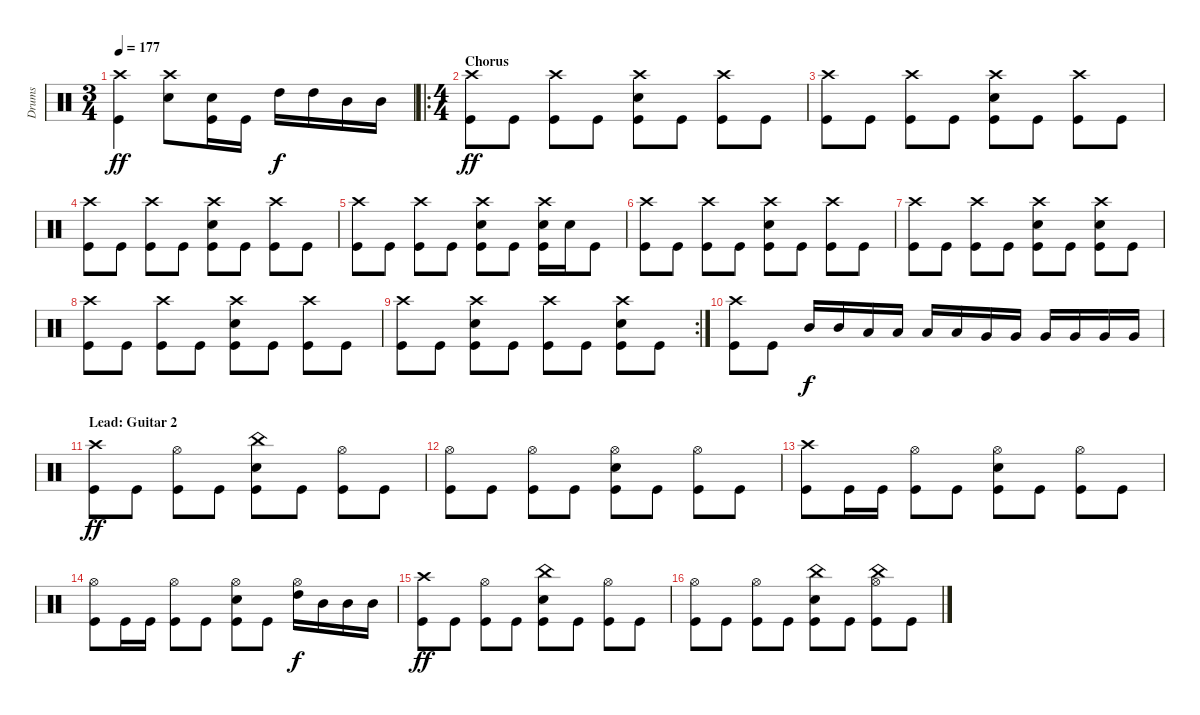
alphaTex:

\track ("Drums" "Drums") {instrument percussion}
\staff {score}
\articulation defaults
\ts (3 4)
\tempo 177
\clef neutral
\ks c
("Crash high (hit)" "Kick (hit)").4{dy ff} ("Crash high (hit)" "Electric Snare (hit)").8 ("Electric Snare (hit)" "Kick (hit)").16 "Kick (hit)".16 "High Tom (hit)".16{dy f} "High Tom (hit)".16 "Mid Tom (hit)".16 "Mid Tom (hit)".16 |
\ro
\ts (4 4)
\section ("" "Chorus")
("Crash high (hit)" "Kick (hit)").8{dy ff} "Kick (hit)".8 ("Crash high (hit)" "Kick (hit)").8 "Kick (hit)".8 ("Crash high (hit)" "Electric Snare (hit)" "Kick (hit)").8 "Kick (hit)".8 ("Crash high (hit)" "Kick (hit)").8 "Kick (hit)".8 |
("Crash high (hit)" "Kick (hit)").8 "Kick (hit)".8 ("Crash high (hit)" "Kick (hit)").8 "Kick (hit)".8 ("Crash high (hit)" "Electric Snare (hit)" "Kick (hit)").8 "Kick (hit)".8 ("Crash high (hit)" "Kick (hit)").8 "Kick (hit)".8 |
("Crash high (hit)" "Kick (hit)").8 "Kick (hit)".8 ("Crash high (hit)" "Kick (hit)").8 "Kick (hit)".8 ("Crash high (hit)" "Electric Snare (hit)" "Kick (hit)").8 "Kick (hit)".8 ("Crash high (hit)" "Kick (hit)").8 "Kick (hit)".8 |
("Crash high (hit)" "Kick (hit)").8 "Kick (hit)".8 ("Crash high (hit)" "Kick (hit)").8 "Kick (hit)".8 ("Crash high (hit)" "Electric Snare (hit)" "Kick (hit)").8 "Kick (hit)".8 ("Crash high (hit)" "Electric Snare (hit)" "Kick (hit)").16 "Electric Snare (hit)".16 "Kick (hit)".8 |
("Crash high (hit)" "Kick (hit)").8 "Kick (hit)".8 ("Crash high (hit)" "Kick (hit)").8 "Kick (hit)".8 ("Crash high (hit)" "Electric Snare (hit)" "Kick (hit)").8 "Kick (hit)".8 ("Crash high (hit)" "Kick (hit)").8 "Kick (hit)".8 |
("Crash high (hit)" "Kick (hit)").8 "Kick (hit)".8 ("Crash high (hit)" "Kick (hit)").8 "Kick (hit)".8 ("Crash high (hit)" "Electric Snare (hit)" "Kick (hit)").8 "Kick (hit)".8 ("Crash high (hit)" "Electric Snare (hit)" "Kick (hit)").8 "Kick (hit)".8 |
("Crash high (hit)" "Kick (hit)").8 "Kick (hit)".8 ("Crash high (hit)" "Kick (hit)").8 "Kick (hit)".8 ("Crash high (hit)" "Electric Snare (hit)" "Kick (hit)").8 "Kick (hit)".8 ("Crash high (hit)" "Kick (hit)").8 "Kick (hit)".8 |
\rc 2
("Crash high (hit)" "Kick (hit)").8 "Kick (hit)".8 ("Crash high (hit)" "Electric Snare (hit)" "Kick (hit)").8 "Kick (hit)".8 ("Crash high (hit)" "Kick (hit)").8 "Kick (hit)".8 ("Crash high (hit)" "Electric Snare (hit)" "Kick (hit)").8 "Kick (hit)".8 |
("Crash high (hit)" "Kick (hit)").8 "Kick (hit)".8 "Mid Tom (hit)".16{dy f} "Mid Tom (hit)".16 "Low Tom (hit)".16 "Low Tom (hit)".16 "Low Tom (hit)".16 "Low Tom (hit)".16 "Very Low Tom (hit)".16 "Very Low Tom (hit)".16 "Very Low Tom (hit)".16 "Very Low Tom (hit)".16 "Very Low Tom (hit)".16 "Very Low Tom (hit)".16 |
\section ("" "Lead: Guitar 2")
("Crash high (hit)" "Kick (hit)").8{dy ff} "Kick (hit)".8 ("Hi-Hat (open)" "Kick (hit)").8 "Kick (hit)".8 ("China (hit)" "Electric Snare (hit)" "Kick (hit)").8 "Kick (hit)".8 ("Hi-Hat (open)" "Kick (hit)").8 "Kick (hit)".8 |
("Hi-Hat (open)" "Kick (hit)").8 "Kick (hit)".8 ("Hi-Hat (open)" "Kick (hit)").8 "Kick (hit)".8 ("Hi-Hat (open)" "Electric Snare (hit)" "Kick (hit)").8 "Kick (hit)".8 ("Hi-Hat (open)" "Kick (hit)").8 "Kick (hit)".8 |
("Crash high (hit)" "Kick (hit)").8 "Kick (hit)".16 "Kick (hit)".16 ("Hi-Hat (open)" "Kick (hit)").8 "Kick (hit)".8 ("Hi-Hat (open)" "Electric Snare (hit)" "Kick (hit)").8 "Kick (hit)".8 ("Hi-Hat (open)" "Kick (hit)").8 "Kick (hit)".8 |
("Hi-Hat (open)" "Kick (hit)").8 "Kick (hit)".16 "Kick (hit)".16 ("Hi-Hat (open)" "Kick (hit)").8 "Kick (hit)".8 ("Hi-Hat (open)" "Electric Snare (hit)" "Kick (hit)").8 "Kick (hit)".8 ("Hi-Hat (open)" "High Tom (hit)").16{dy f} "Mid Tom (hit)".16 "Mid Tom (hit)".16 "Mid Tom (hit)".16 |
("Crash high (hit)" "Kick (hit)").8{dy ff} "Kick (hit)".8 ("Hi-Hat (open)" "Kick (hit)").8 "Kick (hit)".8 ("China (hit)" "Electric Snare (hit)" "Kick (hit)").8 "Kick (hit)".8 ("Hi-Hat (open)" "Kick (hit)").8 "Kick (hit)".8 |
("Hi-Hat (open)" "Kick (hit)").8 "Kick (hit)".8 ("Hi-Hat (open)" "Kick (hit)").8 "Kick (hit)".8 ("China (hit)" "Electric Snare (hit)" "Kick (hit)").8 "Kick (hit)".8 ("Hi-Hat (open)" "China (hit)" "Kick (hit)").8 "Kick (hit)".8
